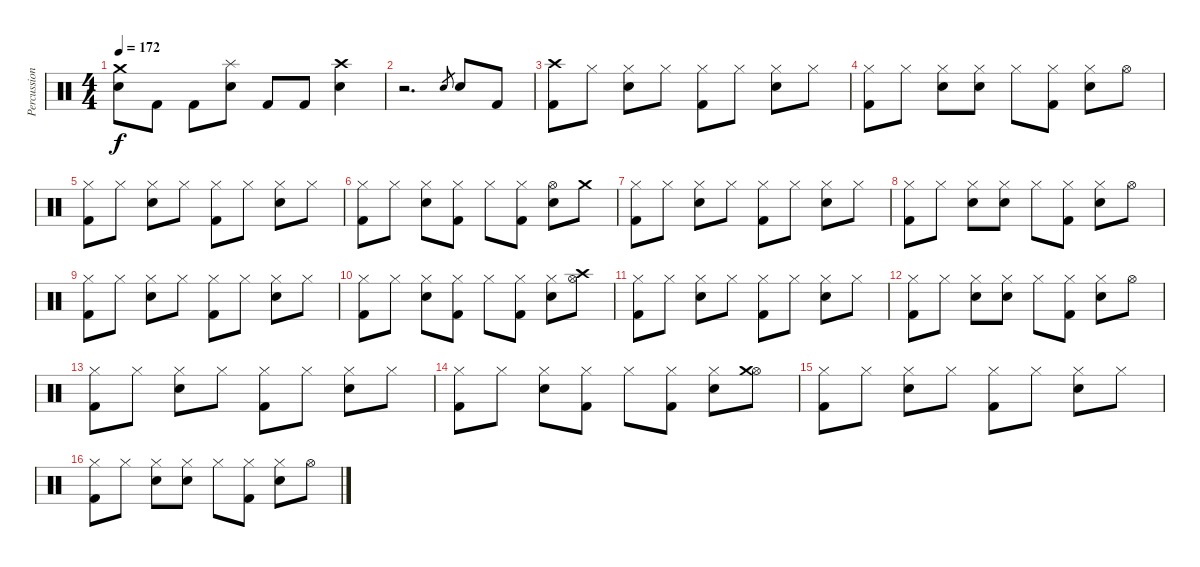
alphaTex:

\track ("Percussions" "Percussion") {instrument percussion}
\staff {score}
\articulation defaults
\ts (4 4)
\tempo 172
\clef neutral
\ks c
("Crash medium (hit)" "Electric Snare (hit)").8{dy f} "Kick (hit) 2".8 "Kick (hit) 2".8 ("Splash (hit)" "Electric Snare (hit)").8 "Kick (hit) 2".8 "Kick (hit) 2".8 ("Crash high (hit)" "Electric Snare (hit)").4 |
r.2{d} "Electric Snare (hit)".8{gr} "Electric Snare (hit)".8 "Kick (hit) 2".8 |
("Crash high (hit)" "Kick (hit) 2").8 "Hi-Hat (closed)".8 ("Hi-Hat (closed)" "Electric Snare (hit)").8 "Hi-Hat (closed)".8 ("Hi-Hat (closed)" "Kick (hit) 2").8 "Hi-Hat (closed)".8 ("Hi-Hat (closed)" "Electric Snare (hit)").8 "Hi-Hat (closed)".8 |
("Hi-Hat (closed)" "Kick (hit) 2").8 "Hi-Hat (closed)".8 ("Hi-Hat (closed)" "Electric Snare (hit)").8 ("Hi-Hat (closed)" "Electric Snare (hit)").8 "Hi-Hat (closed)".8 ("Hi-Hat (closed)" "Kick (hit) 2").8 ("Hi-Hat (closed)" "Electric Snare (hit)").8 "Hi-Hat (open)".8 |
("Hi-Hat (closed)" "Kick (hit) 2").8 "Hi-Hat (closed)".8 ("Hi-Hat (closed)" "Electric Snare (hit)").8 "Hi-Hat (closed)".8 ("Hi-Hat (closed)" "Kick (hit) 2").8 "Hi-Hat (closed)".8 ("Hi-Hat (closed)" "Electric Snare (hit)").8 "Hi-Hat (closed)".8 |
("Hi-Hat (closed)" "Kick (hit) 2").8 "Hi-Hat (closed)".8 ("Hi-Hat (closed)" "Electric Snare (hit)").8 ("Hi-Hat (closed)" "Kick (hit) 2").8 "Hi-Hat (closed)".8 ("Hi-Hat (closed)" "Kick (hit) 2").8 ("Hi-Hat (open)" "Electric Snare (hit)").8 "Crash medium (hit)".8 |
("Hi-Hat (closed)" "Kick (hit) 2").8 "Hi-Hat (closed)".8 ("Hi-Hat (closed)" "Electric Snare (hit)").8 "Hi-Hat (closed)".8 ("Hi-Hat (closed)" "Kick (hit) 2").8 "Hi-Hat (closed)".8 ("Hi-Hat (closed)" "Electric Snare (hit)").8 "Hi-Hat (closed)".8 |
("Hi-Hat (closed)" "Kick (hit) 2").8 "Hi-Hat (closed)".8 ("Hi-Hat (closed)" "Electric Snare (hit)").8 ("Hi-Hat (closed)" "Electric Snare (hit)").8 "Hi-Hat (closed)".8 ("Hi-Hat (closed)" "Kick (hit) 2").8 ("Hi-Hat (closed)" "Electric Snare (hit)").8 "Hi-Hat (open)".8 |
("Hi-Hat (closed)" "Kick (hit) 2").8 "Hi-Hat (closed)".8 ("Hi-Hat (closed)" "Electric Snare (hit)").8 "Hi-Hat (closed)".8 ("Hi-Hat (closed)" "Kick (hit) 2").8 "Hi-Hat (closed)".8 ("Hi-Hat (closed)" "Electric Snare (hit)").8 "Hi-Hat (closed)".8 |
("Hi-Hat (closed)" "Kick (hit) 2").8 "Hi-Hat (closed)".8 ("Hi-Hat (closed)" "Electric Snare (hit)").8 ("Hi-Hat (closed)" "Kick (hit) 2").8 "Hi-Hat (closed)".8 ("Hi-Hat (closed)" "Kick (hit) 2").8 ("Hi-Hat (closed)" "Electric Snare (hit)").8 ("Hi-Hat (open)" "Crash high (hit)").8 |
("Hi-Hat (closed)" "Kick (hit) 2").8 "Hi-Hat (closed)".8 ("Hi-Hat (closed)" "Electric Snare (hit)").8 "Hi-Hat (closed)".8 ("Hi-Hat (closed)" "Kick (hit) 2").8 "Hi-Hat (closed)".8 ("Hi-Hat (closed)" "Electric Snare (hit)").8 "Hi-Hat (closed)".8 |
("Hi-Hat (closed)" "Kick (hit) 2").8 "Hi-Hat (closed)".8 ("Hi-Hat (closed)" "Electric Snare (hit)").8 ("Hi-Hat (closed)" "Electric Snare (hit)").8 "Hi-Hat (closed)".8 ("Hi-Hat (closed)" "Kick (hit) 2").8 ("Hi-Hat (closed)" "Electric Snare (hit)").8 "Hi-Hat (open)".8 |
("Hi-Hat (closed)" "Kick (hit) 2").8 "Hi-Hat (closed)".8 ("Hi-Hat (closed)" "Electric Snare (hit)").8 "Hi-Hat (closed)".8 ("Hi-Hat (closed)" "Kick (hit) 2").8 "Hi-Hat (closed)".8 ("Hi-Hat (closed)" "Electric Snare (hit)").8 "Hi-Hat (closed)".8 |
("Hi-Hat (closed)" "Kick (hit) 2").8 "Hi-Hat (closed)".8 ("Hi-Hat (closed)" "Electric Snare (hit)").8 ("Hi-Hat (closed)" "Kick (hit) 2").8 "Hi-Hat (closed)".8 ("Hi-Hat (closed)" "Kick (hit) 2").8 ("Hi-Hat (closed)" "Electric Snare (hit)").8 ("Hi-Hat (open)" "Crash medium (hit)").8 |
("Hi-Hat (closed)" "Kick (hit) 2").8 "Hi-Hat (closed)".8 ("Hi-Hat (closed)" "Electric Snare (hit)").8 "Hi-Hat (closed)".8 ("Hi-Hat (closed)" "Kick (hit) 2").8 "Hi-Hat (closed)".8 ("Hi-Hat (closed)" "Electric Snare (hit)").8 "Hi-Hat (closed)".8 |
("Hi-Hat (closed)" "Kick (hit) 2").8 "Hi-Hat (closed)".8 ("Hi-Hat (closed)" "Electric Snare (hit)").8 ("Hi-Hat (closed)" "Electric Snare (hit)").8 "Hi-Hat (closed)".8 ("Hi-Hat (closed)" "Kick (hit) 2").8 ("Hi-Hat (closed)" "Electric Snare (hit)").8 "Hi-Hat (open)".8
